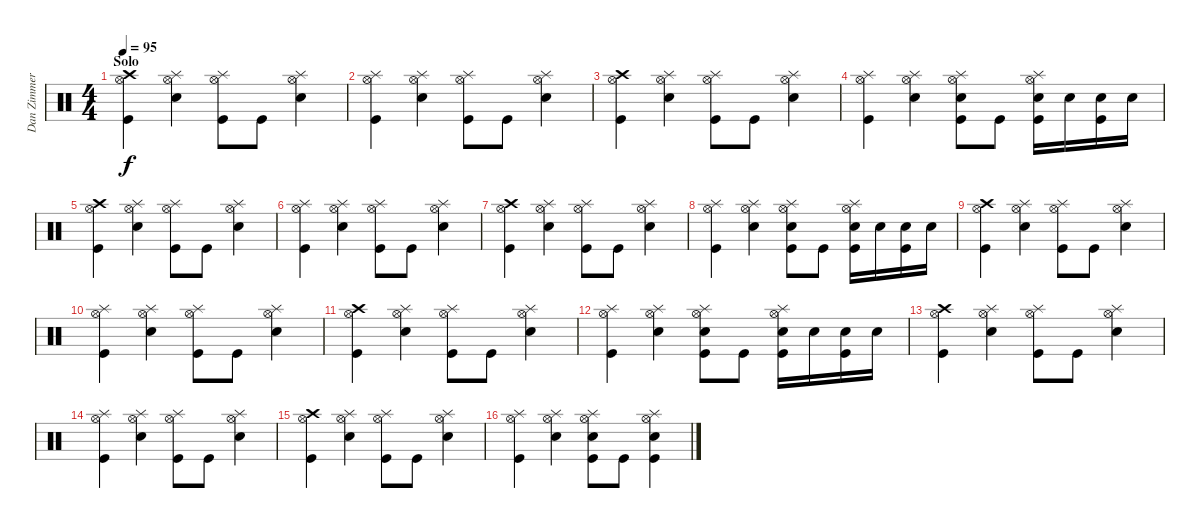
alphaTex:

\track ("Dan Zimmermann [drums]" "Dan Zimmer") {instrument percussion}
\staff {score}
\articulation defaults
\ts (4 4)
\section ("" "Solo")
\tempo 95
\clef neutral
\ks c
("Hi-Hat (open)" "Crash high (hit)" "Kick (hit)").4{dy f} ("Hi-Hat (open)" "Splash (hit)" "Snare (hit) 2").4 ("Hi-Hat (open)" "Splash (hit)" "Kick (hit)").8 "Kick (hit)".8 ("Hi-Hat (open)" "Splash (hit)" "Snare (hit) 2").4 |
("Hi-Hat (open)" "Splash (hit)" "Kick (hit)").4 ("Hi-Hat (open)" "Splash (hit)" "Snare (hit) 2").4 ("Hi-Hat (open)" "Splash (hit)" "Kick (hit)").8 "Kick (hit)".8 ("Hi-Hat (open)" "Splash (hit)" "Snare (hit) 2").4 |
("Hi-Hat (open)" "Crash high (hit)" "Kick (hit)").4 ("Hi-Hat (open)" "Splash (hit)" "Snare (hit) 2").4 ("Hi-Hat (open)" "Splash (hit)" "Kick (hit)").8 "Kick (hit)".8 ("Hi-Hat (open)" "Splash (hit)" "Snare (hit) 2").4 |
("Hi-Hat (open)" "Splash (hit)" "Kick (hit)").4 ("Hi-Hat (open)" "Splash (hit)" "Snare (hit) 2").4 ("Hi-Hat (open)" "Splash (hit)" "Snare (hit) 2" "Kick (hit)").8 "Kick (hit)".8 ("Hi-Hat (open)" "Splash (hit)" "Snare (hit) 2" "Kick (hit)").16 "Snare (hit) 2".16 ("Snare (hit) 2" "Kick (hit)").16 "Snare (hit) 2".16 |
("Hi-Hat (open)" "Crash high (hit)" "Kick (hit)").4 ("Hi-Hat (open)" "Splash (hit)" "Snare (hit) 2").4 ("Hi-Hat (open)" "Splash (hit)" "Kick (hit)").8 "Kick (hit)".8 ("Hi-Hat (open)" "Splash (hit)" "Snare (hit) 2").4 |
("Hi-Hat (open)" "Splash (hit)" "Kick (hit)").4 ("Hi-Hat (open)" "Splash (hit)" "Snare (hit) 2").4 ("Hi-Hat (open)" "Splash (hit)" "Kick (hit)").8 "Kick (hit)".8 ("Hi-Hat (open)" "Splash (hit)" "Snare (hit) 2").4 |
("Hi-Hat (open)" "Crash high (hit)" "Kick (hit)").4 ("Hi-Hat (open)" "Splash (hit)" "Snare (hit) 2").4 ("Hi-Hat (open)" "Splash (hit)" "Kick (hit)").8 "Kick (hit)".8 ("Hi-Hat (open)" "Splash (hit)" "Snare (hit) 2").4 |
("Hi-Hat (open)" "Splash (hit)" "Kick (hit)").4 ("Hi-Hat (open)" "Splash (hit)" "Snare (hit) 2").4 ("Hi-Hat (open)" "Splash (hit)" "Snare (hit) 2" "Kick (hit)").8 "Kick (hit)".8 ("Hi-Hat (open)" "Splash (hit)" "Snare (hit) 2" "Kick (hit)").16 "Snare (hit) 2".16 ("Snare (hit) 2" "Kick (hit)").16 "Snare (hit) 2".16 |
("Hi-Hat (open)" "Crash high (hit)" "Kick (hit)").4 ("Hi-Hat (open)" "Splash (hit)" "Snare (hit) 2").4 ("Hi-Hat (open)" "Splash (hit)" "Kick (hit)").8 "Kick (hit)".8 ("Hi-Hat (open)" "Splash (hit)" "Snare (hit) 2").4 |
("Hi-Hat (open)" "Splash (hit)" "Kick (hit)").4 ("Hi-Hat (open)" "Splash (hit)" "Snare (hit) 2").4 ("Hi-Hat (open)" "Splash (hit)" "Kick (hit)").8 "Kick (hit)".8 ("Hi-Hat (open)" "Splash (hit)" "Snare (hit) 2").4 |
("Hi-Hat (open)" "Crash high (hit)" "Kick (hit)").4 ("Hi-Hat (open)" "Splash (hit)" "Snare (hit) 2").4 ("Hi-Hat (open)" "Splash (hit)" "Kick (hit)").8 "Kick (hit)".8 ("Hi-Hat (open)" "Splash (hit)" "Snare (hit) 2").4 |
("Hi-Hat (open)" "Splash (hit)" "Kick (hit)").4 ("Hi-Hat (open)" "Splash (hit)" "Snare (hit) 2").4 ("Hi-Hat (open)" "Splash (hit)" "Snare (hit) 2" "Kick (hit)").8 "Kick (hit)".8 ("Hi-Hat (open)" "Splash (hit)" "Snare (hit) 2" "Kick (hit)").16 "Snare (hit) 2".16 ("Snare (hit) 2" "Kick (hit)").16 "Snare (hit) 2".16 |
("Hi-Hat (open)" "Crash high (hit)" "Kick (hit)").4 ("Hi-Hat (open)" "Splash (hit)" "Snare (hit) 2").4 ("Hi-Hat (open)" "Splash (hit)" "Kick (hit)").8 "Kick (hit)".8 ("Hi-Hat (open)" "Splash (hit)" "Snare (hit) 2").4 |
("Hi-Hat (open)" "Splash (hit)" "Kick (hit)").4 ("Hi-Hat (open)" "Splash (hit)" "Snare (hit) 2").4 ("Hi-Hat (open)" "Splash (hit)" "Kick (hit)").8 "Kick (hit)".8 ("Hi-Hat (open)" "Splash (hit)" "Snare (hit) 2").4 |
("Hi-Hat (open)" "Crash high (hit)" "Kick (hit)").4 ("Hi-Hat (open)" "Splash (hit)" "Snare (hit) 2").4 ("Hi-Hat (open)" "Splash (hit)" "Kick (hit)").8 "Kick (hit)".8 ("Hi-Hat (open)" "Splash (hit)" "Snare (hit) 2").4 |
("Hi-Hat (open)" "Splash (hit)" "Kick (hit)").4 ("Hi-Hat (open)" "Splash (hit)" "Snare (hit) 2").4 ("Hi-Hat (open)" "Splash (hit)" "Snare (hit) 2" "Kick (hit)").8 "Kick (hit)".8 ("Hi-Hat (open)" "Splash (hit)" "Snare (hit) 2" "Kick (hit)").4
